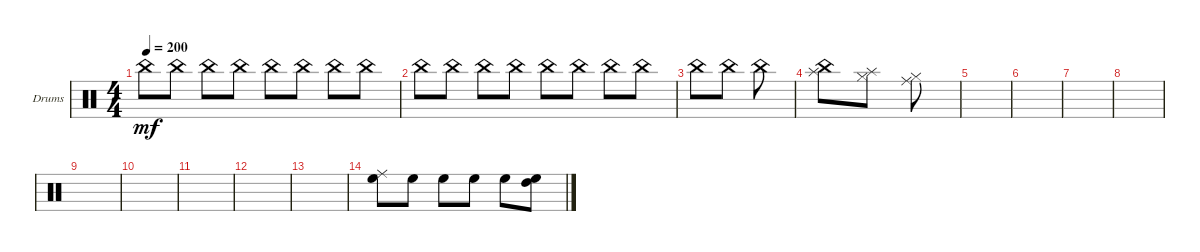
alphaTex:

\defaultSystemsLayout 4
\bracketExtendMode groupsimilarinstruments
\firstSystemTrackNameOrientation horizontal
\otherSystemsTrackNameOrientation horizontal
\track ("Drumkit" "Drums") {instrument percussion}
\staff {score}
\articulation defaults
\ts (4 4)
\tempo 200
\clef neutral
\scale
0.333333
\ks c "China (hit)".8{dy mf} "China (hit)".8 "China (hit)".8 "China (hit)".8 "China (hit)".8 "China (hit)".8 "China (hit)".8 "China (hit)".8
|
\scale
0.333333 "China (hit)".8 "China (hit)".8 "China (hit)".8 "China (hit)".8 "China (hit)".8 "China (hit)".8 "China (hit)".8 "China (hit)".8 |
\scale
0.333333 "China (hit)".8 "China (hit)".8 "China (hit)".8 |
\scale
0.333333 ("China (hit)" "Splash (hit)").8 ("Splash (hit)" "Hi-Hat (closed)").8 ("Hi-Hat (closed)" "Ride (middle)").8 |
\scale
0.333333 |
\scale
0.333333 |
\scale
0.333333 |
\scale
0.333333 |
\scale
0.333333 |
\scale
0.333333 |
\scale
0.333333 |
\scale
0.333333 |
\scale
0.333333 |
\scale
0.333333 ("Ride (middle)" "High Floor Tom (hit)").8 "High Floor Tom (hit)".8 "High Floor Tom (hit)".8 "High Floor Tom (hit)".8 "High Floor Tom (hit)".8 ("High Floor Tom (hit)" "High Tom (hit)").8 |
\scale
0.333333 |
\scale
0.333333
